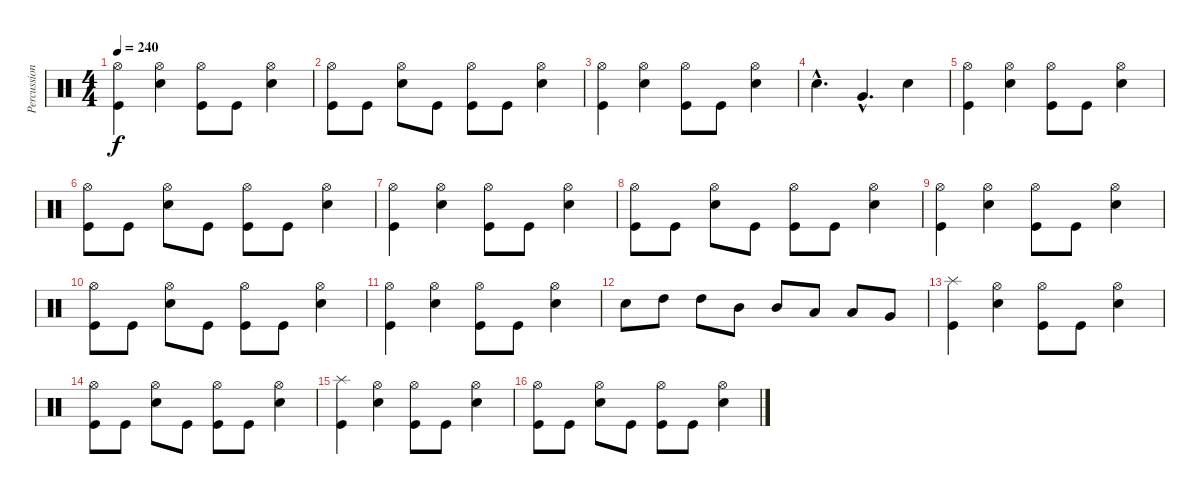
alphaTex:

\track ("Percussions" "Percussion") {instrument percussion}
\staff {score}
\articulation defaults
\ts (4 4)
\tempo 240
\clef neutral
\ks c
("Kick (hit)" "Hi-Hat (open)").4{dy f} ("Electric Snare (hit)" "Hi-Hat (open)").4 ("Kick (hit)" "Hi-Hat (open)").8 "Kick (hit)".8 ("Electric Snare (hit)" "Hi-Hat (open)").4 |
("Kick (hit)" "Hi-Hat (open)").8 "Kick (hit)".8 ("Electric Snare (hit)" "Hi-Hat (open)").8 "Kick (hit)".8 ("Kick (hit)" "Hi-Hat (open)").8 "Kick (hit)".8 ("Electric Snare (hit)" "Hi-Hat (open)").4 |
("Kick (hit)" "Hi-Hat (open)").4 ("Electric Snare (hit)" "Hi-Hat (open)").4 ("Kick (hit)" "Hi-Hat (open)").8 "Kick (hit)".8 ("Electric Snare (hit)" "Hi-Hat (open)").4 |
"Electric Snare (hit)"{hac}.4{d} "Very Low Tom (hit)"{hac}.4{d} "Electric Snare (hit)".4 |
("Kick (hit)" "Hi-Hat (open)").4 ("Electric Snare (hit)" "Hi-Hat (open)").4 ("Kick (hit)" "Hi-Hat (open)").8 "Kick (hit)".8 ("Electric Snare (hit)" "Hi-Hat (open)").4 |
("Kick (hit)" "Hi-Hat (open)").8 "Kick (hit)".8 ("Electric Snare (hit)" "Hi-Hat (open)").8 "Kick (hit)".8 ("Kick (hit)" "Hi-Hat (open)").8 "Kick (hit)".8 ("Electric Snare (hit)" "Hi-Hat (open)").4 |
("Kick (hit)" "Hi-Hat (open)").4 ("Electric Snare (hit)" "Hi-Hat (open)").4 ("Kick (hit)" "Hi-Hat (open)").8 "Kick (hit)".8 ("Electric Snare (hit)" "Hi-Hat (open)").4 |
("Kick (hit)" "Hi-Hat (open)").8 "Kick (hit)".8 ("Electric Snare (hit)" "Hi-Hat (open)").8 "Kick (hit)".8 ("Kick (hit)" "Hi-Hat (open)").8 "Kick (hit)".8 ("Electric Snare (hit)" "Hi-Hat (open)").4 |
("Kick (hit)" "Hi-Hat (open)").4 ("Electric Snare (hit)" "Hi-Hat (open)").4 ("Kick (hit)" "Hi-Hat (open)").8 "Kick (hit)".8 ("Electric Snare (hit)" "Hi-Hat (open)").4 |
("Kick (hit)" "Hi-Hat (open)").8 "Kick (hit)".8 ("Electric Snare (hit)" "Hi-Hat (open)").8 "Kick (hit)".8 ("Kick (hit)" "Hi-Hat (open)").8 "Kick (hit)".8 ("Electric Snare (hit)" "Hi-Hat (open)").4 |
("Kick (hit)" "Hi-Hat (open)").4 ("Electric Snare (hit)" "Hi-Hat (open)").4 ("Kick (hit)" "Hi-Hat (open)").8 "Kick (hit)".8 ("Electric Snare (hit)" "Hi-Hat (open)").4 |
"Electric Snare (hit)".8 "High Tom (hit)".8 "High Tom (hit)".8 "Mid Tom (hit)".8 "Mid Tom (hit)".8 "Low Tom (hit)".8 "Low Tom (hit)".8 "Very Low Tom (hit)".8 |
("Kick (hit)" "Splash (hit)").4 ("Electric Snare (hit)" "Hi-Hat (open)").4 ("Kick (hit)" "Hi-Hat (open)").8 "Kick (hit)".8 ("Electric Snare (hit)" "Hi-Hat (open)").4 |
("Kick (hit)" "Hi-Hat (open)").8 "Kick (hit)".8 ("Electric Snare (hit)" "Hi-Hat (open)").8 "Kick (hit)".8 ("Kick (hit)" "Hi-Hat (open)").8 "Kick (hit)".8 ("Electric Snare (hit)" "Hi-Hat (open)").4 |
("Kick (hit)" "Splash (hit)").4 ("Electric Snare (hit)" "Hi-Hat (open)").4 ("Kick (hit)" "Hi-Hat (open)").8 "Kick (hit)".8 ("Electric Snare (hit)" "Hi-Hat (open)").4 |
("Kick (hit)" "Hi-Hat (open)").8 "Kick (hit)".8 ("Electric Snare (hit)" "Hi-Hat (open)").8 "Kick (hit)".8 ("Kick (hit)" "Hi-Hat (open)").8 "Kick (hit)".8 ("Electric Snare (hit)" "Hi-Hat (open)").4
